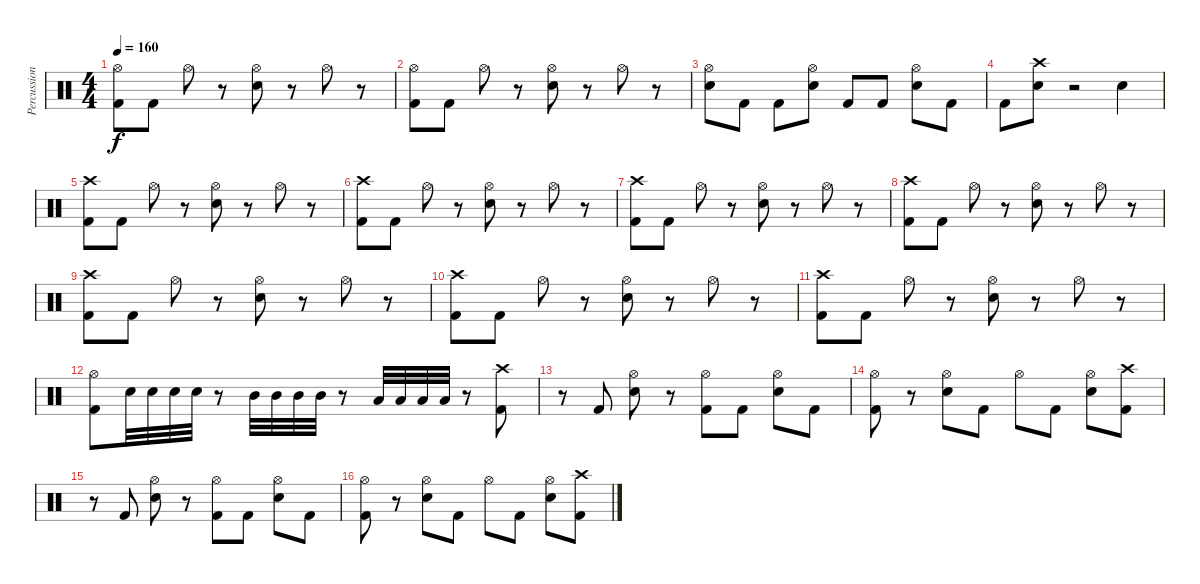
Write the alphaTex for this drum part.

\track ("Percussion" "Percussion") {instrument percussion}
\staff {score}
\articulation defaults
\ts (4 4)
\tempo 160
\clef neutral
\ks c
("Hi-Hat (open)" "Kick (hit) 2").8{dy f} "Kick (hit) 2".8 "Hi-Hat (open)".8 r.8 ("Hi-Hat (open)" "Electric Snare (hit)").8 r.8 "Hi-Hat (open)".8 r.8 |
("Hi-Hat (open)" "Kick (hit) 2").8 "Kick (hit) 2".8 "Hi-Hat (open)".8 r.8 ("Hi-Hat (open)" "Electric Snare (hit)").8 r.8 "Hi-Hat (open)".8 r.8 |
("Hi-Hat (open)" "Electric Snare (hit)").8 "Kick (hit) 2".8 "Kick (hit) 2".8 ("Hi-Hat (open)" "Electric Snare (hit)").8 "Kick (hit) 2".8 "Kick (hit) 2".8 ("Hi-Hat (open)" "Electric Snare (hit)").8 "Kick (hit) 2".8 |
"Kick (hit) 2".8 ("Crash high (hit)" "Electric Snare (hit)").8 r.2 "Electric Snare (hit)".4 |
("Crash high (hit)" "Kick (hit) 2").8 "Kick (hit) 2".8 "Hi-Hat (open)".8 r.8 ("Hi-Hat (open)" "Electric Snare (hit)").8 r.8 "Hi-Hat (open)".8 r.8 |
("Crash high (hit)" "Kick (hit) 2").8 "Kick (hit) 2".8 "Hi-Hat (open)".8 r.8 ("Hi-Hat (open)" "Electric Snare (hit)").8 r.8 "Hi-Hat (open)".8 r.8 |
("Crash high (hit)" "Kick (hit) 2").8 "Kick (hit) 2".8 "Hi-Hat (open)".8 r.8 ("Hi-Hat (open)" "Electric Snare (hit)").8 r.8 "Hi-Hat (open)".8 r.8 |
("Crash high (hit)" "Kick (hit) 2").8 "Kick (hit) 2".8 "Hi-Hat (open)".8 r.8 ("Hi-Hat (open)" "Electric Snare (hit)").8 r.8 "Hi-Hat (open)".8 r.8 |
("Crash high (hit)" "Kick (hit) 2").8 "Kick (hit) 2".8 "Hi-Hat (open)".8 r.8 ("Hi-Hat (open)" "Electric Snare (hit)").8 r.8 "Hi-Hat (open)".8 r.8 |
("Crash high (hit)" "Kick (hit) 2").8 "Kick (hit) 2".8 "Hi-Hat (open)".8 r.8 ("Hi-Hat (open)" "Electric Snare (hit)").8 r.8 "Hi-Hat (open)".8 r.8 |
("Crash high (hit)" "Kick (hit) 2").8 "Kick (hit) 2".8 "Hi-Hat (open)".8 r.8 ("Hi-Hat (open)" "Electric Snare (hit)").8 r.8 "Hi-Hat (open)".8 r.8 |
("Hi-Hat (open)" "Kick (hit) 2").8 "Electric Snare (hit)".32 "Electric Snare (hit)".32 "Electric Snare (hit)".32 "Electric Snare (hit)".32 r.8 "Mid Tom (hit)".32 "Mid Tom (hit)".32 "Mid Tom (hit)".32 "Mid Tom (hit)".32 r.8 "Low Tom (hit)".32 "Low Tom (hit)".32 "Low Tom (hit)".32 "Low Tom (hit)".32 r.8 ("Crash high (hit)" "Kick (hit) 2").8 |
r.8 "Kick (hit) 2".8 ("Hi-Hat (open)" "Electric Snare (hit)").8 r.8 ("Hi-Hat (open)" "Kick (hit) 2").8 "Kick (hit) 2".8 ("Hi-Hat (open)" "Electric Snare (hit)").8 "Kick (hit) 2".8 |
("Hi-Hat (open)" "Kick (hit) 2").8 r.8 ("Hi-Hat (open)" "Electric Snare (hit)").8 "Kick (hit) 2".8 "Hi-Hat (open)".8 "Kick (hit) 2".8 ("Hi-Hat (open)" "Electric Snare (hit)").8 ("Crash high (hit)" "Kick (hit) 2").8 |
r.8 "Kick (hit) 2".8 ("Hi-Hat (open)" "Electric Snare (hit)").8 r.8 ("Hi-Hat (open)" "Kick (hit) 2").8 "Kick (hit) 2".8 ("Hi-Hat (open)" "Electric Snare (hit)").8 "Kick (hit) 2".8 |
("Hi-Hat (open)" "Kick (hit) 2").8 r.8 ("Hi-Hat (open)" "Electric Snare (hit)").8 "Kick (hit) 2".8 "Hi-Hat (open)".8 "Kick (hit) 2".8 ("Hi-Hat (open)" "Electric Snare (hit)").8 ("Crash high (hit)" "Kick (hit) 2").8
